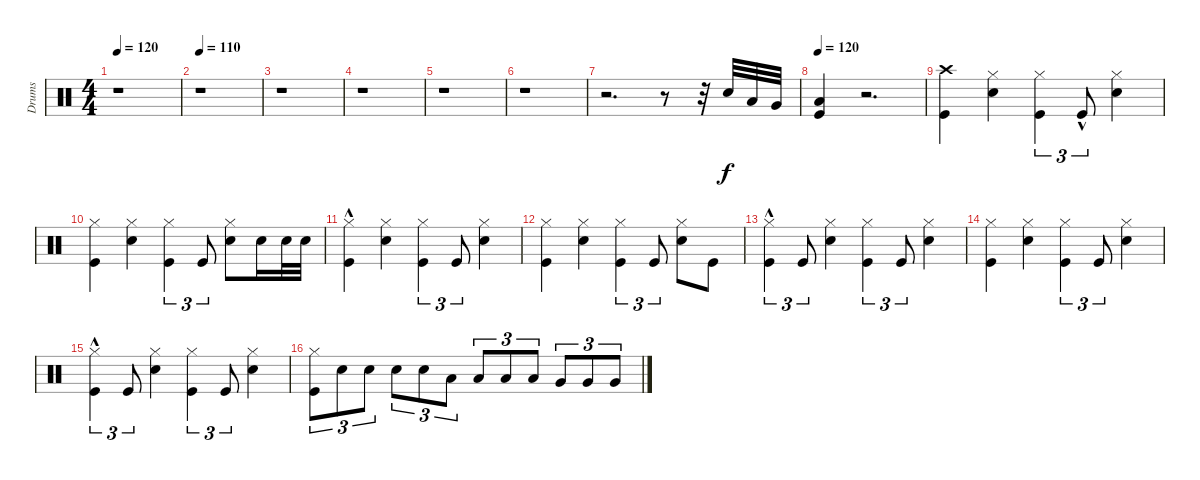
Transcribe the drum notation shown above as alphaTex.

\track ("Drums" "Drums") {instrument percussion}
\staff {score}
\articulation defaults
\ts (4 4)
\tempo 120
\clef neutral
\ks c
r.1{dy f} |
\tempo 110
r.1 |
r.1 |
r.1 |
r.1 |
r.1 |
r.2{d} r.8 r.32 "Snare (hit) 2".32 "Low Tom (hit)".32 "Very Low Tom (hit)".32 |
\tempo 120
("Kick (hit)" "Low Floor Tom (hit)").4 r.2{d} |
("Kick (hit)" "Crash high (hit)").4 ("Snare (hit) 2" "Hi-Hat (closed)").4 ("Kick (hit)" "Hi-Hat (closed)").4{tu (3 2)} "Kick (hit)"{hac}.8{tu (3 2)} ("Snare (hit) 2" "Hi-Hat (closed)").4 |
("Kick (hit)" "Hi-Hat (closed)").4 ("Snare (hit) 2" "Hi-Hat (closed)").4 ("Kick (hit)" "Hi-Hat (closed)").4{tu (3 2)} "Kick (hit)".8{tu (3 2)} ("Hi-Hat (closed)" "Snare (hit) 2").8 "Snare (hit) 2".16 "Snare (hit) 2".32 "Snare (hit) 2".32 |
("Kick (hit)"{hac} "Hi-Hat (closed)").4 ("Snare (hit) 2" "Hi-Hat (closed)").4 ("Kick (hit)" "Hi-Hat (closed)").4{tu (3 2)} "Kick (hit)".8{tu (3 2)} ("Snare (hit) 2" "Hi-Hat (closed)").4 |
("Kick (hit)" "Hi-Hat (closed)").4 ("Snare (hit) 2" "Hi-Hat (closed)").4 ("Kick (hit)" "Hi-Hat (closed)").4{tu (3 2)} "Kick (hit)".8{tu (3 2)} ("Snare (hit) 2" "Hi-Hat (closed)").8 "Kick (hit)".8 |
("Kick (hit)"{hac} "Hi-Hat (closed)").4{tu (3 2)} "Kick (hit)".8{tu (3 2)} ("Snare (hit) 2" "Hi-Hat (closed)").4 ("Kick (hit)" "Hi-Hat (closed)").4{tu (3 2)} "Kick (hit)".8{tu (3 2)} ("Snare (hit) 2" "Hi-Hat (closed)").4 |
("Kick (hit)" "Hi-Hat (closed)").4 ("Snare (hit) 2" "Hi-Hat (closed)").4 ("Kick (hit)" "Hi-Hat (closed)").4{tu (3 2)} "Kick (hit)".8{tu (3 2)} ("Snare (hit) 2" "Hi-Hat (closed)").4 |
("Kick (hit)"{hac} "Hi-Hat (closed)").4{tu (3 2)} "Kick (hit)".8{tu (3 2)} ("Snare (hit) 2" "Hi-Hat (closed)").4 ("Kick (hit)" "Hi-Hat (closed)").4{tu (3 2)} "Kick (hit)".8{tu (3 2)} ("Snare (hit) 2" "Hi-Hat (closed)").4 |
("Kick (hit)" "Hi-Hat (closed)").8{tu (3 2)} "Snare (hit) 2".8{tu (3 2)} "Snare (hit) 2".8{tu (3 2)} "Snare (hit) 2".8{tu (3 2)} "Snare (hit) 2".8{tu (3 2)} "Low Tom (hit)".8{tu (3 2)} "Low Tom (hit)".8{tu (3 2)} "Low Tom (hit)".8{tu (3 2)} "Low Tom (hit)".8{tu (3 2)} "Very Low Tom (hit)".8{tu (3 2)} "Very Low Tom (hit)".8{tu (3 2)} "Very Low Tom (hit)".8{tu (3 2)}
